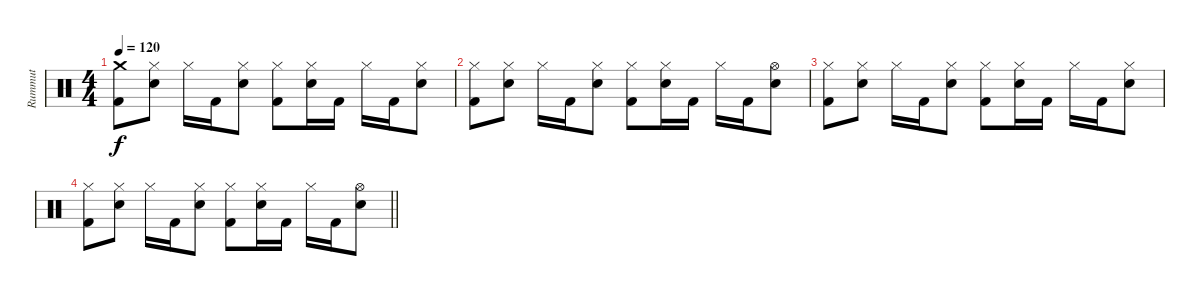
\track ("Rummut" "Rummut") {instrument percussion}
\staff {score}
\articulation defaults
\ts (4 4)
\tempo 120
\clef neutral
\ks c
("Crash medium (hit)" "Kick (hit) 2").8{dy f} ("Hi-Hat (closed)" "Snare (hit) 2").8 "Hi-Hat (closed)".16 "Kick (hit) 2".16 ("Hi-Hat (closed)" "Snare (hit) 2").8 ("Hi-Hat (closed)" "Kick (hit) 2").8 ("Hi-Hat (closed)" "Snare (hit) 2").16 "Kick (hit) 2".16 "Hi-Hat (closed)".16 "Kick (hit) 2".16 ("Hi-Hat (closed)" "Snare (hit) 2").8 |
("Hi-Hat (closed)" "Kick (hit) 2").8 ("Hi-Hat (closed)" "Snare (hit) 2").8 "Hi-Hat (closed)".16 "Kick (hit) 2".16 ("Hi-Hat (closed)" "Snare (hit) 2").8 ("Hi-Hat (closed)" "Kick (hit) 2").8 ("Hi-Hat (closed)" "Snare (hit) 2").16 "Kick (hit) 2".16 "Hi-Hat (closed)".16 "Kick (hit) 2".16 ("Hi-Hat (open)" "Snare (hit) 2").8 |
("Hi-Hat (closed)" "Kick (hit) 2").8 ("Hi-Hat (closed)" "Snare (hit) 2").8 "Hi-Hat (closed)".16 "Kick (hit) 2".16 ("Hi-Hat (closed)" "Snare (hit) 2").8 ("Hi-Hat (closed)" "Kick (hit) 2").8 ("Hi-Hat (closed)" "Snare (hit) 2").16 "Kick (hit) 2".16 "Hi-Hat (closed)".16 "Kick (hit) 2".16 ("Hi-Hat (closed)" "Snare (hit) 2").8 |
\barLineRight lightlight
("Hi-Hat (closed)" "Kick (hit) 2").8 ("Hi-Hat (closed)" "Snare (hit) 2").8 "Hi-Hat (closed)".16 "Kick (hit) 2".16 ("Hi-Hat (closed)" "Snare (hit) 2").8 ("Hi-Hat (closed)" "Kick (hit) 2").8 ("Hi-Hat (closed)" "Snare (hit) 2").16 "Kick (hit) 2".16 "Hi-Hat (closed)".16 "Kick (hit) 2".16 ("Hi-Hat (open)" "Snare (hit) 2").8
